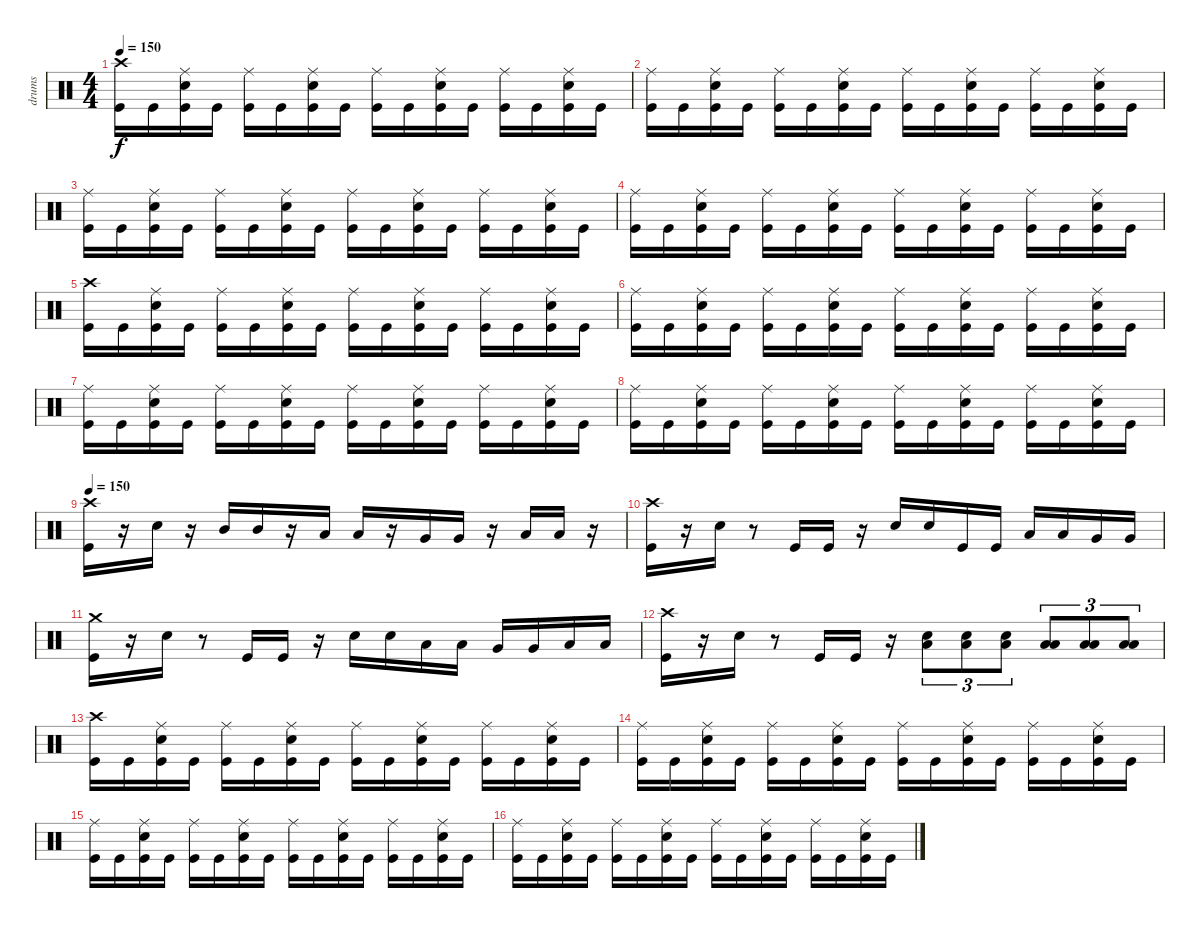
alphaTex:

\track ("drums" "drums") {instrument percussion}
\staff {score}
\articulation defaults
\ts (4 4)
\tempo 150
\clef neutral
\ks c
("Crash high (hit)" "Kick (hit)").16{dy f} "Kick (hit)".16 ("Ride (middle)" "Kick (hit)" "Electric Snare (hit)").16 "Kick (hit)".16 ("Ride (middle)" "Kick (hit)").16 "Kick (hit)".16 ("Ride (middle)" "Kick (hit)" "Electric Snare (hit)").16 "Kick (hit)".16 ("Ride (middle)" "Kick (hit)").16 "Kick (hit)".16 ("Ride (middle)" "Electric Snare (hit)" "Kick (hit)").16 "Kick (hit)".16 ("Ride (middle)" "Kick (hit)").16 "Kick (hit)".16 ("Ride (middle)" "Kick (hit)" "Electric Snare (hit)").16 "Kick (hit)".16 |
("Ride (middle)" "Kick (hit)").16 "Kick (hit)".16 ("Ride (middle)" "Kick (hit)" "Electric Snare (hit)").16 "Kick (hit)".16 ("Ride (middle)" "Kick (hit)").16 "Kick (hit)".16 ("Ride (middle)" "Kick (hit)" "Electric Snare (hit)").16 "Kick (hit)".16 ("Ride (middle)" "Kick (hit)").16 "Kick (hit)".16 ("Ride (middle)" "Electric Snare (hit)" "Kick (hit)").16 "Kick (hit)".16 ("Ride (middle)" "Kick (hit)").16 "Kick (hit)".16 ("Ride (middle)" "Kick (hit)" "Electric Snare (hit)").16 "Kick (hit)".16 |
("Ride (middle)" "Kick (hit)").16 "Kick (hit)".16 ("Ride (middle)" "Kick (hit)" "Electric Snare (hit)").16 "Kick (hit)".16 ("Ride (middle)" "Kick (hit)").16 "Kick (hit)".16 ("Ride (middle)" "Kick (hit)" "Electric Snare (hit)").16 "Kick (hit)".16 ("Ride (middle)" "Kick (hit)").16 "Kick (hit)".16 ("Ride (middle)" "Electric Snare (hit)" "Kick (hit)").16 "Kick (hit)".16 ("Ride (middle)" "Kick (hit)").16 "Kick (hit)".16 ("Ride (middle)" "Kick (hit)" "Electric Snare (hit)").16 "Kick (hit)".16 |
("Ride (middle)" "Kick (hit)").16 "Kick (hit)".16 ("Ride (middle)" "Kick (hit)" "Electric Snare (hit)").16 "Kick (hit)".16 ("Ride (middle)" "Kick (hit)").16 "Kick (hit)".16 ("Ride (middle)" "Kick (hit)" "Electric Snare (hit)").16 "Kick (hit)".16 ("Ride (middle)" "Kick (hit)").16 "Kick (hit)".16 ("Ride (middle)" "Electric Snare (hit)" "Kick (hit)").16 "Kick (hit)".16 ("Ride (middle)" "Kick (hit)").16 "Kick (hit)".16 ("Ride (middle)" "Kick (hit)" "Electric Snare (hit)").16 "Kick (hit)".16 |
("Crash high (hit)" "Kick (hit)").16 "Kick (hit)".16 ("Ride (middle)" "Kick (hit)" "Electric Snare (hit)").16 "Kick (hit)".16 ("Ride (middle)" "Kick (hit)").16 "Kick (hit)".16 ("Ride (middle)" "Kick (hit)" "Electric Snare (hit)").16 "Kick (hit)".16 ("Ride (middle)" "Kick (hit)").16 "Kick (hit)".16 ("Ride (middle)" "Electric Snare (hit)" "Kick (hit)").16 "Kick (hit)".16 ("Ride (middle)" "Kick (hit)").16 "Kick (hit)".16 ("Ride (middle)" "Kick (hit)" "Electric Snare (hit)").16 "Kick (hit)".16 |
("Ride (middle)" "Kick (hit)").16 "Kick (hit)".16 ("Ride (middle)" "Kick (hit)" "Electric Snare (hit)").16 "Kick (hit)".16 ("Ride (middle)" "Kick (hit)").16 "Kick (hit)".16 ("Ride (middle)" "Kick (hit)" "Electric Snare (hit)").16 "Kick (hit)".16 ("Ride (middle)" "Kick (hit)").16 "Kick (hit)".16 ("Ride (middle)" "Electric Snare (hit)" "Kick (hit)").16 "Kick (hit)".16 ("Ride (middle)" "Kick (hit)").16 "Kick (hit)".16 ("Ride (middle)" "Kick (hit)" "Electric Snare (hit)").16 "Kick (hit)".16 |
("Ride (middle)" "Kick (hit)").16 "Kick (hit)".16 ("Ride (middle)" "Kick (hit)" "Electric Snare (hit)").16 "Kick (hit)".16 ("Ride (middle)" "Kick (hit)").16 "Kick (hit)".16 ("Ride (middle)" "Kick (hit)" "Electric Snare (hit)").16 "Kick (hit)".16 ("Ride (middle)" "Kick (hit)").16 "Kick (hit)".16 ("Ride (middle)" "Electric Snare (hit)" "Kick (hit)").16 "Kick (hit)".16 ("Ride (middle)" "Kick (hit)").16 "Kick (hit)".16 ("Ride (middle)" "Kick (hit)" "Electric Snare (hit)").16 "Kick (hit)".16 |
("Ride (middle)" "Kick (hit)").16 "Kick (hit)".16 ("Ride (middle)" "Kick (hit)" "Electric Snare (hit)").16 "Kick (hit)".16 ("Ride (middle)" "Kick (hit)").16 "Kick (hit)".16 ("Ride (middle)" "Kick (hit)" "Electric Snare (hit)").16 "Kick (hit)".16 ("Ride (middle)" "Kick (hit)").16 "Kick (hit)".16 ("Ride (middle)" "Electric Snare (hit)" "Kick (hit)").16 "Kick (hit)".16 ("Ride (middle)" "Kick (hit)").16 "Kick (hit)".16 ("Ride (middle)" "Kick (hit)" "Electric Snare (hit)").16 "Kick (hit)".16 |
\tempo 150
("Crash high (hit)" "Kick (hit)").16 r.16 "Electric Snare (hit)".16 r.16 "Mid Tom (hit)".16 "Mid Tom (hit)".16 r.16 "Low Tom (hit)".16 "Low Tom (hit)".16 r.16 "Very Low Tom (hit)".16 "Very Low Tom (hit)".16 r.16 "Low Floor Tom (hit)".16 "Low Floor Tom (hit)".16 r.16 |
("Crash high (hit)" "Kick (hit)").16 r.16 "Electric Snare (hit)".16 r.8 "Kick (hit)".16 "Kick (hit)".16 r.16 "Electric Snare (hit)".16 "Electric Snare (hit)".16 "Kick (hit)".16 "Kick (hit)".16 "Low Tom (hit)".16 "Low Tom (hit)".16 "Very Low Tom (hit)".16 "Very Low Tom (hit)".16 |
("Crash medium (hit)" "Kick (hit)").16 r.16 "Electric Snare (hit)".16 r.8 "Kick (hit)".16 "Kick (hit)".16 r.16 "Electric Snare (hit)".16 "Electric Snare (hit)".16 "Low Tom (hit)".16 "Low Tom (hit)".16 "Very Low Tom (hit)".16 "Very Low Tom (hit)".16 "Low Floor Tom (hit)".16 "Low Floor Tom (hit)".16 |
("Crash high (hit)" "Kick (hit)").16 r.16 "Electric Snare (hit)".16 r.8 "Kick (hit)".16 "Kick (hit)".16 r.16 ("Low Floor Tom (hit)" "Electric Snare (hit)").8{tu (3 2)} ("Low Floor Tom (hit)" "Electric Snare (hit)").8{tu (3 2)} ("Low Floor Tom (hit)" "Electric Snare (hit)").8{tu (3 2)} ("Low Tom (hit)" "Low Floor Tom (hit)").8{tu (3 2)} ("Low Tom (hit)" "Low Floor Tom (hit)").8{tu (3 2)} ("Low Tom (hit)" "Low Floor Tom (hit)").8{tu (3 2)} |
("Crash high (hit)" "Kick (hit)").16 "Kick (hit)".16 ("Ride (middle)" "Kick (hit)" "Electric Snare (hit)").16 "Kick (hit)".16 ("Ride (middle)" "Kick (hit)").16 "Kick (hit)".16 ("Ride (middle)" "Kick (hit)" "Electric Snare (hit)").16 "Kick (hit)".16 ("Ride (middle)" "Kick (hit)").16 "Kick (hit)".16 ("Ride (middle)" "Electric Snare (hit)" "Kick (hit)").16 "Kick (hit)".16 ("Ride (middle)" "Kick (hit)").16 "Kick (hit)".16 ("Ride (middle)" "Kick (hit)" "Electric Snare (hit)").16 "Kick (hit)".16 |
("Ride (middle)" "Kick (hit)").16 "Kick (hit)".16 ("Ride (middle)" "Kick (hit)" "Electric Snare (hit)").16 "Kick (hit)".16 ("Ride (middle)" "Kick (hit)").16 "Kick (hit)".16 ("Ride (middle)" "Kick (hit)" "Electric Snare (hit)").16 "Kick (hit)".16 ("Ride (middle)" "Kick (hit)").16 "Kick (hit)".16 ("Ride (middle)" "Electric Snare (hit)" "Kick (hit)").16 "Kick (hit)".16 ("Ride (middle)" "Kick (hit)").16 "Kick (hit)".16 ("Ride (middle)" "Kick (hit)" "Electric Snare (hit)").16 "Kick (hit)".16 |
("Ride (middle)" "Kick (hit)").16 "Kick (hit)".16 ("Ride (middle)" "Kick (hit)" "Electric Snare (hit)").16 "Kick (hit)".16 ("Ride (middle)" "Kick (hit)").16 "Kick (hit)".16 ("Ride (middle)" "Kick (hit)" "Electric Snare (hit)").16 "Kick (hit)".16 ("Ride (middle)" "Kick (hit)").16 "Kick (hit)".16 ("Ride (middle)" "Electric Snare (hit)" "Kick (hit)").16 "Kick (hit)".16 ("Ride (middle)" "Kick (hit)").16 "Kick (hit)".16 ("Ride (middle)" "Kick (hit)" "Electric Snare (hit)").16 "Kick (hit)".16 |
("Ride (middle)" "Kick (hit)").16 "Kick (hit)".16 ("Ride (middle)" "Kick (hit)" "Electric Snare (hit)").16 "Kick (hit)".16 ("Ride (middle)" "Kick (hit)").16 "Kick (hit)".16 ("Ride (middle)" "Kick (hit)" "Electric Snare (hit)").16 "Kick (hit)".16 ("Ride (middle)" "Kick (hit)").16 "Kick (hit)".16 ("Ride (middle)" "Electric Snare (hit)" "Kick (hit)").16 "Kick (hit)".16 ("Ride (middle)" "Kick (hit)").16 "Kick (hit)".16 ("Ride (middle)" "Kick (hit)" "Electric Snare (hit)").16 "Kick (hit)".16
